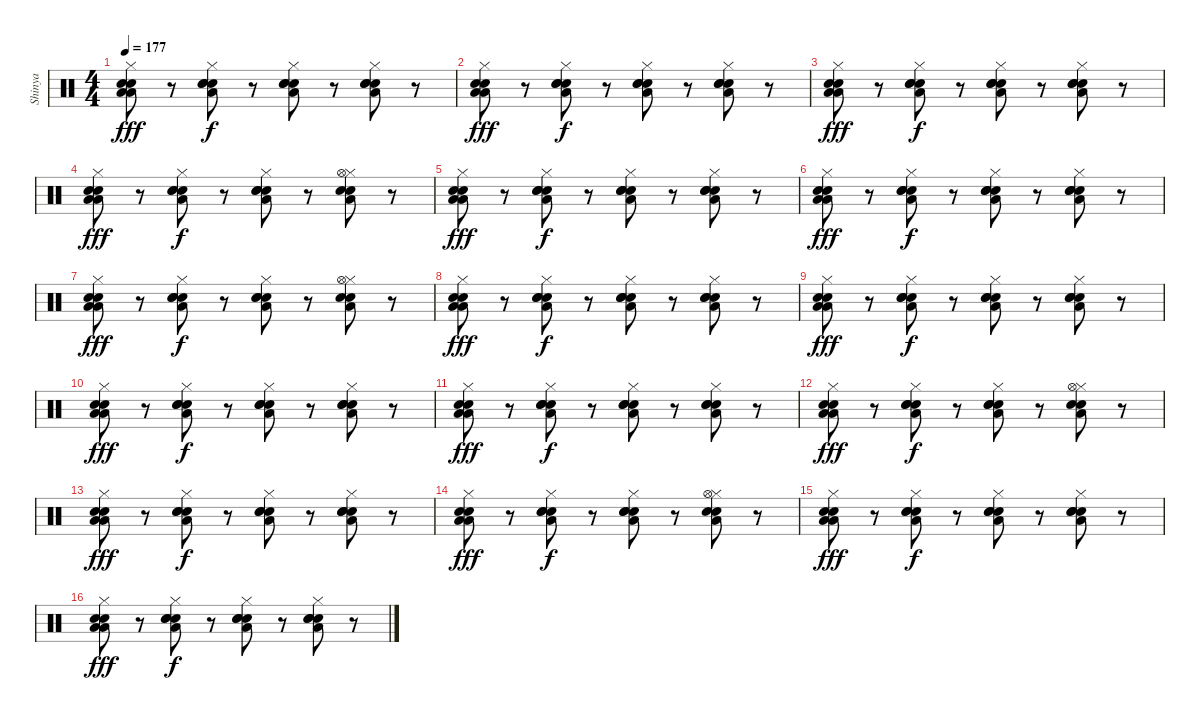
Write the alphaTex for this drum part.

\track ("Shinya " "Shinya ") {instrument percussion}
\staff {score}
\articulation defaults
\ts (4 4)
\tempo 177
\clef neutral
\ks c
("Hi-Hat (closed)" "Electric Snare (hit)" "Low Tom (hit)" "Electric Snare (hit)" "Low Tom (hit)").8{dy fff} r.8 ("Hi-Hat (closed)" "Electric Snare (hit)" "Low Tom (hit)" "Electric Snare (hit)" "Snare (hit) 2").8{dy f} r.8 ("Hi-Hat (closed)" "Electric Snare (hit)" "Electric Snare (hit)" "Snare (hit) 2" "Low Tom (hit)").8 r.8 ("Hi-Hat (closed)" "Electric Snare (hit)" "Electric Snare (hit)" "Low Tom (hit)" "Electric Snare (hit)").8 r.8 |
("Hi-Hat (closed)" "Electric Snare (hit)" "Low Tom (hit)" "Electric Snare (hit)" "Low Tom (hit)").8{dy fff} r.8 ("Hi-Hat (closed)" "Electric Snare (hit)" "Low Tom (hit)" "Electric Snare (hit)" "Snare (hit) 2").8{dy f} r.8 ("Hi-Hat (closed)" "Electric Snare (hit)" "Electric Snare (hit)" "Snare (hit) 2" "Low Tom (hit)").8 r.8 ("Hi-Hat (closed)" "Electric Snare (hit)" "Electric Snare (hit)" "Electric Snare (hit)" "Low Tom (hit)").8 r.8 |
("Hi-Hat (closed)" "Electric Snare (hit)" "Low Tom (hit)" "Electric Snare (hit)" "Low Tom (hit)").8{dy fff} r.8 ("Hi-Hat (closed)" "Electric Snare (hit)" "Low Tom (hit)" "Electric Snare (hit)" "Snare (hit) 2").8{dy f} r.8 ("Hi-Hat (closed)" "Electric Snare (hit)" "Electric Snare (hit)" "Snare (hit) 2" "Low Tom (hit)").8 r.8 ("Hi-Hat (closed)" "Electric Snare (hit)" "Electric Snare (hit)" "Low Tom (hit)" "Electric Snare (hit)").8 r.8 |
("Hi-Hat (closed)" "Electric Snare (hit)" "Low Tom (hit)" "Electric Snare (hit)" "Low Tom (hit)").8{dy fff} r.8 ("Hi-Hat (closed)" "Electric Snare (hit)" "Low Tom (hit)" "Electric Snare (hit)" "Snare (hit) 2").8{dy f} r.8 ("Hi-Hat (closed)" "Electric Snare (hit)" "Electric Snare (hit)" "Snare (hit) 2" "Low Tom (hit)").8 r.8 ("Hi-Hat (closed)" "Hi-Hat (open)" "Electric Snare (hit)" "Electric Snare (hit)" "Low Tom (hit)").8 r.8 |
("Hi-Hat (closed)" "Electric Snare (hit)" "Low Tom (hit)" "Electric Snare (hit)" "Low Tom (hit)").8{dy fff} r.8 ("Hi-Hat (closed)" "Electric Snare (hit)" "Low Tom (hit)" "Electric Snare (hit)" "Snare (hit) 2").8{dy f} r.8 ("Hi-Hat (closed)" "Electric Snare (hit)" "Electric Snare (hit)" "Snare (hit) 2" "Low Tom (hit)").8 r.8 ("Hi-Hat (closed)" "Electric Snare (hit)" "Electric Snare (hit)" "Electric Snare (hit)" "Low Tom (hit)").8 r.8 |
("Hi-Hat (closed)" "Electric Snare (hit)" "Low Tom (hit)" "Electric Snare (hit)" "Low Tom (hit)").8{dy fff} r.8 ("Hi-Hat (closed)" "Electric Snare (hit)" "Low Tom (hit)" "Electric Snare (hit)" "Snare (hit) 2").8{dy f} r.8 ("Hi-Hat (closed)" "Electric Snare (hit)" "Electric Snare (hit)" "Snare (hit) 2" "Low Tom (hit)").8 r.8 ("Hi-Hat (closed)" "Electric Snare (hit)" "Electric Snare (hit)" "Low Tom (hit)" "Electric Snare (hit)").8 r.8 |
("Hi-Hat (closed)" "Electric Snare (hit)" "Low Tom (hit)" "Electric Snare (hit)" "Low Tom (hit)").8{dy fff} r.8 ("Hi-Hat (closed)" "Electric Snare (hit)" "Low Tom (hit)" "Electric Snare (hit)" "Snare (hit) 2").8{dy f} r.8 ("Hi-Hat (closed)" "Electric Snare (hit)" "Electric Snare (hit)" "Snare (hit) 2" "Low Tom (hit)").8 r.8 ("Hi-Hat (closed)" "Hi-Hat (open)" "Electric Snare (hit)" "Electric Snare (hit)" "Low Tom (hit)").8 r.8 |
("Hi-Hat (closed)" "Electric Snare (hit)" "Low Tom (hit)" "Electric Snare (hit)" "Low Tom (hit)").8{dy fff} r.8 ("Hi-Hat (closed)" "Electric Snare (hit)" "Low Tom (hit)" "Electric Snare (hit)" "Snare (hit) 2").8{dy f} r.8 ("Hi-Hat (closed)" "Electric Snare (hit)" "Electric Snare (hit)" "Snare (hit) 2" "Low Tom (hit)").8 r.8 ("Hi-Hat (closed)" "Electric Snare (hit)" "Electric Snare (hit)" "Electric Snare (hit)" "Low Tom (hit)").8 r.8 |
("Hi-Hat (closed)" "Electric Snare (hit)" "Low Tom (hit)" "Electric Snare (hit)" "Low Tom (hit)").8{dy fff} r.8 ("Hi-Hat (closed)" "Electric Snare (hit)" "Low Tom (hit)" "Electric Snare (hit)" "Snare (hit) 2").8{dy f} r.8 ("Hi-Hat (closed)" "Electric Snare (hit)" "Electric Snare (hit)" "Snare (hit) 2" "Low Tom (hit)").8 r.8 ("Hi-Hat (closed)" "Electric Snare (hit)" "Electric Snare (hit)" "Low Tom (hit)" "Electric Snare (hit)").8 r.8 |
("Hi-Hat (closed)" "Electric Snare (hit)" "Low Tom (hit)" "Electric Snare (hit)" "Low Tom (hit)").8{dy fff} r.8 ("Hi-Hat (closed)" "Electric Snare (hit)" "Low Tom (hit)" "Electric Snare (hit)" "Snare (hit) 2").8{dy f} r.8 ("Hi-Hat (closed)" "Electric Snare (hit)" "Electric Snare (hit)" "Snare (hit) 2" "Low Tom (hit)").8 r.8 ("Hi-Hat (closed)" "Electric Snare (hit)" "Electric Snare (hit)" "Electric Snare (hit)" "Low Tom (hit)").8 r.8 |
("Hi-Hat (closed)" "Electric Snare (hit)" "Low Tom (hit)" "Electric Snare (hit)" "Low Tom (hit)").8{dy fff} r.8 ("Hi-Hat (closed)" "Electric Snare (hit)" "Low Tom (hit)" "Electric Snare (hit)" "Snare (hit) 2").8{dy f} r.8 ("Hi-Hat (closed)" "Electric Snare (hit)" "Electric Snare (hit)" "Snare (hit) 2" "Low Tom (hit)").8 r.8 ("Hi-Hat (closed)" "Electric Snare (hit)" "Electric Snare (hit)" "Low Tom (hit)" "Electric Snare (hit)").8 r.8 |
("Hi-Hat (closed)" "Electric Snare (hit)" "Low Tom (hit)" "Electric Snare (hit)" "Low Tom (hit)").8{dy fff} r.8 ("Hi-Hat (closed)" "Electric Snare (hit)" "Low Tom (hit)" "Electric Snare (hit)" "Snare (hit) 2").8{dy f} r.8 ("Hi-Hat (closed)" "Electric Snare (hit)" "Electric Snare (hit)" "Snare (hit) 2" "Low Tom (hit)").8 r.8 ("Hi-Hat (closed)" "Hi-Hat (open)" "Electric Snare (hit)" "Electric Snare (hit)" "Low Tom (hit)").8 r.8 |
("Hi-Hat (closed)" "Electric Snare (hit)" "Low Tom (hit)" "Electric Snare (hit)" "Low Tom (hit)").8{dy fff} r.8 ("Hi-Hat (closed)" "Electric Snare (hit)" "Low Tom (hit)" "Electric Snare (hit)" "Snare (hit) 2").8{dy f} r.8 ("Hi-Hat (closed)" "Electric Snare (hit)" "Electric Snare (hit)" "Snare (hit) 2" "Low Tom (hit)").8 r.8 ("Hi-Hat (closed)" "Electric Snare (hit)" "Electric Snare (hit)" "Electric Snare (hit)" "Low Tom (hit)").8 r.8 |
("Hi-Hat (closed)" "Electric Snare (hit)" "Low Tom (hit)" "Electric Snare (hit)" "Low Tom (hit)").8{dy fff} r.8 ("Hi-Hat (closed)" "Electric Snare (hit)" "Low Tom (hit)" "Electric Snare (hit)" "Snare (hit) 2").8{dy f} r.8 ("Hi-Hat (closed)" "Electric Snare (hit)" "Electric Snare (hit)" "Snare (hit) 2" "Low Tom (hit)").8 r.8 ("Hi-Hat (closed)" "Hi-Hat (open)" "Electric Snare (hit)" "Electric Snare (hit)" "Low Tom (hit)").8 r.8 |
("Hi-Hat (closed)" "Electric Snare (hit)" "Low Tom (hit)" "Electric Snare (hit)" "Low Tom (hit)").8{dy fff} r.8 ("Hi-Hat (closed)" "Electric Snare (hit)" "Low Tom (hit)" "Electric Snare (hit)" "Snare (hit) 2").8{dy f} r.8 ("Hi-Hat (closed)" "Electric Snare (hit)" "Electric Snare (hit)" "Snare (hit) 2" "Low Tom (hit)").8 r.8 ("Hi-Hat (closed)" "Electric Snare (hit)" "Electric Snare (hit)" "Electric Snare (hit)" "Low Tom (hit)").8 r.8 |
("Hi-Hat (closed)" "Electric Snare (hit)" "Low Tom (hit)" "Electric Snare (hit)" "Low Tom (hit)").8{dy fff} r.8 ("Hi-Hat (closed)" "Electric Snare (hit)" "Low Tom (hit)" "Electric Snare (hit)" "Snare (hit) 2").8{dy f} r.8 ("Hi-Hat (closed)" "Electric Snare (hit)" "Electric Snare (hit)" "Snare (hit) 2" "Low Tom (hit)").8 r.8 ("Hi-Hat (closed)" "Electric Snare (hit)" "Electric Snare (hit)" "Low Tom (hit)" "Electric Snare (hit)").8 r.8
